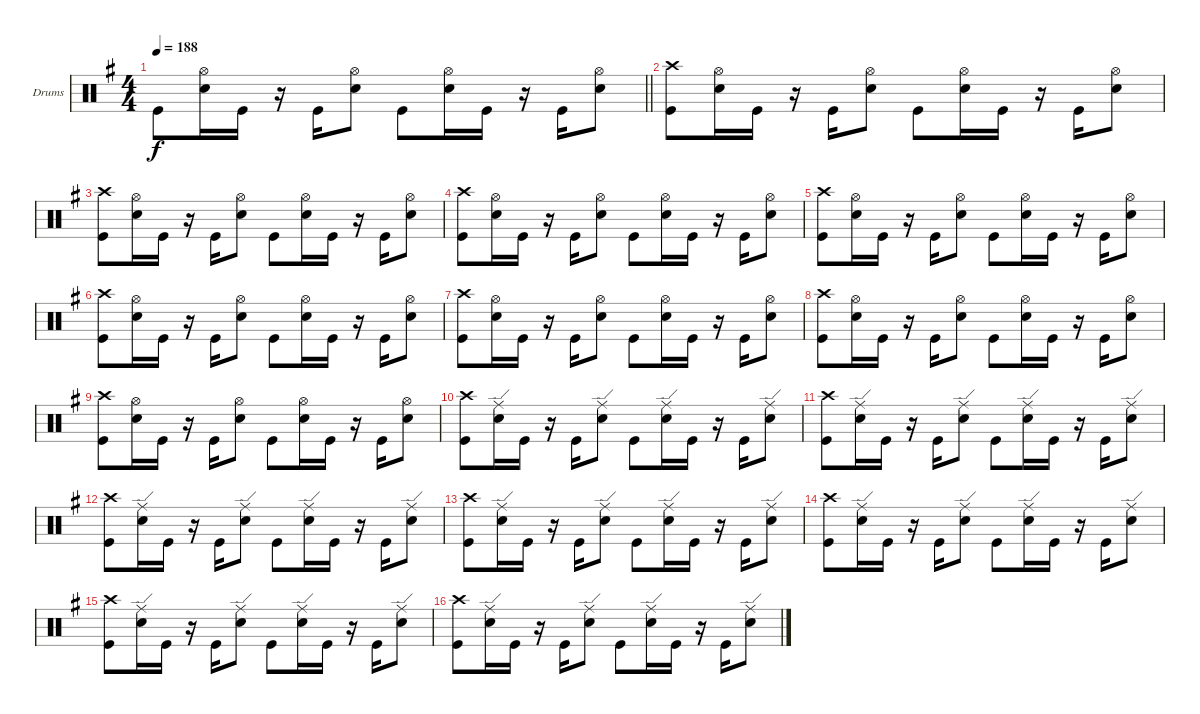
\defaultSystemsLayout 4
\bracketExtendMode groupsimilarinstruments
\firstSystemTrackNameOrientation horizontal
\otherSystemsTrackNameOrientation horizontal
\track ("Drums" "Drums") {instrument percussion}
\staff {score}
\articulation defaults
\ts (4 4)
\tempo 188
\clef neutral
\barLineRight lightlight
\ks g "Kick (hit)".8{dy f}
("Snare (hit) 2" "Hi-Hat (open)").16 "Kick (hit)".16 r.16 "Kick (hit)".16 ("Snare (hit) 2" "Hi-Hat (open)").8 "Kick (hit)".8 ("Snare (hit) 2" "Hi-Hat (open)").16 "Kick (hit)".16 r.16 "Kick (hit)".16 ("Snare (hit) 2" "Hi-Hat (open)").8 |
("Kick (hit)" "Crash high (hit)").8 ("Snare (hit) 2" "Hi-Hat (open)").16 "Kick (hit)".16 r.16 "Kick (hit)".16 ("Snare (hit) 2" "Hi-Hat (open)").8 "Kick (hit)".8 ("Snare (hit) 2" "Hi-Hat (open)").16 "Kick (hit)".16 r.16 "Kick (hit)".16 ("Snare (hit) 2" "Hi-Hat (open)").8 |
("Kick (hit)" "Crash high (hit)").8 ("Snare (hit) 2" "Hi-Hat (open)").16 "Kick (hit)".16 r.16 "Kick (hit)".16 ("Snare (hit) 2" "Hi-Hat (open)").8 "Kick (hit)".8 ("Snare (hit) 2" "Hi-Hat (open)").16 "Kick (hit)".16 r.16 "Kick (hit)".16 ("Snare (hit) 2" "Hi-Hat (open)").8 |
("Kick (hit)" "Crash high (hit)").8 ("Snare (hit) 2" "Hi-Hat (open)").16 "Kick (hit)".16 r.16 "Kick (hit)".16 ("Snare (hit) 2" "Hi-Hat (open)").8 "Kick (hit)".8 ("Snare (hit) 2" "Hi-Hat (open)").16 "Kick (hit)".16 r.16 "Kick (hit)".16 ("Snare (hit) 2" "Hi-Hat (open)").8 |
("Kick (hit)" "Crash high (hit)").8 ("Snare (hit) 2" "Hi-Hat (open)").16 "Kick (hit)".16 r.16 "Kick (hit)".16 ("Snare (hit) 2" "Hi-Hat (open)").8 "Kick (hit)".8 ("Snare (hit) 2" "Hi-Hat (open)").16 "Kick (hit)".16 r.16 "Kick (hit)".16 ("Snare (hit) 2" "Hi-Hat (open)").8 |
("Kick (hit)" "Crash high (hit)").8 ("Snare (hit) 2" "Hi-Hat (open)").16 "Kick (hit)".16 r.16 "Kick (hit)".16 ("Snare (hit) 2" "Hi-Hat (open)").8 "Kick (hit)".8 ("Snare (hit) 2" "Hi-Hat (open)").16 "Kick (hit)".16 r.16 "Kick (hit)".16 ("Snare (hit) 2" "Hi-Hat (open)").8 |
("Kick (hit)" "Crash high (hit)").8 ("Snare (hit) 2" "Hi-Hat (open)").16 "Kick (hit)".16 r.16 "Kick (hit)".16 ("Snare (hit) 2" "Hi-Hat (open)").8 "Kick (hit)".8 ("Snare (hit) 2" "Hi-Hat (open)").16 "Kick (hit)".16 r.16 "Kick (hit)".16 ("Snare (hit) 2" "Hi-Hat (open)").8 |
("Kick (hit)" "Crash high (hit)").8 ("Snare (hit) 2" "Hi-Hat (open)").16 "Kick (hit)".16 r.16 "Kick (hit)".16 ("Snare (hit) 2" "Hi-Hat (open)").8 "Kick (hit)".8 ("Snare (hit) 2" "Hi-Hat (open)").16 "Kick (hit)".16 r.16 "Kick (hit)".16 ("Snare (hit) 2" "Hi-Hat (open)").8 |
("Kick (hit)" "Crash high (hit)").8 ("Snare (hit) 2" "Hi-Hat (open)").16 "Kick (hit)".16 r.16 "Kick (hit)".16 ("Snare (hit) 2" "Hi-Hat (open)").8 "Kick (hit)".8 ("Snare (hit) 2" "Hi-Hat (open)").16 "Kick (hit)".16 r.16 "Kick (hit)".16 ("Snare (hit) 2" "Hi-Hat (open)").8 |
("Kick (hit)" "Crash high (hit)").8 ("Snare (hit) 2" "Ride (edge)").16 "Kick (hit)".16 r.16 "Kick (hit)".16 ("Snare (hit) 2" "Ride (edge)").8 "Kick (hit)".8 ("Snare (hit) 2" "Ride (edge)").16 "Kick (hit)".16 r.16 "Kick (hit)".16 ("Snare (hit) 2" "Ride (edge)").8 |
("Kick (hit)" "Crash high (hit)").8 ("Snare (hit) 2" "Ride (edge)").16 "Kick (hit)".16 r.16 "Kick (hit)".16 ("Snare (hit) 2" "Ride (edge)").8 "Kick (hit)".8 ("Snare (hit) 2" "Ride (edge)").16 "Kick (hit)".16 r.16 "Kick (hit)".16 ("Snare (hit) 2" "Ride (edge)").8 |
("Kick (hit)" "Crash high (hit)").8 ("Snare (hit) 2" "Ride (edge)").16 "Kick (hit)".16 r.16 "Kick (hit)".16 ("Snare (hit) 2" "Ride (edge)").8 "Kick (hit)".8 ("Snare (hit) 2" "Ride (edge)").16 "Kick (hit)".16 r.16 "Kick (hit)".16 ("Snare (hit) 2" "Ride (edge)").8 |
("Kick (hit)" "Crash high (hit)").8 ("Snare (hit) 2" "Ride (edge)").16 "Kick (hit)".16 r.16 "Kick (hit)".16 ("Snare (hit) 2" "Ride (edge)").8 "Kick (hit)".8 ("Snare (hit) 2" "Ride (edge)").16 "Kick (hit)".16 r.16 "Kick (hit)".16 ("Snare (hit) 2" "Ride (edge)").8 |
("Kick (hit)" "Crash high (hit)").8 ("Snare (hit) 2" "Ride (edge)").16 "Kick (hit)".16 r.16 "Kick (hit)".16 ("Snare (hit) 2" "Ride (edge)").8 "Kick (hit)".8 ("Snare (hit) 2" "Ride (edge)").16 "Kick (hit)".16 r.16 "Kick (hit)".16 ("Snare (hit) 2" "Ride (edge)").8 |
("Kick (hit)" "Crash high (hit)").8 ("Snare (hit) 2" "Ride (edge)").16 "Kick (hit)".16 r.16 "Kick (hit)".16 ("Snare (hit) 2" "Ride (edge)").8 "Kick (hit)".8 ("Snare (hit) 2" "Ride (edge)").16 "Kick (hit)".16 r.16 "Kick (hit)".16 ("Snare (hit) 2" "Ride (edge)").8 |
("Kick (hit)" "Crash high (hit)").8 ("Snare (hit) 2" "Ride (edge)").16 "Kick (hit)".16 r.16 "Kick (hit)".16 ("Snare (hit) 2" "Ride (edge)").8 "Kick (hit)".8 ("Snare (hit) 2" "Ride (edge)").16 "Kick (hit)".16 r.16 "Kick (hit)".16 ("Snare (hit) 2" "Ride (edge)").8
